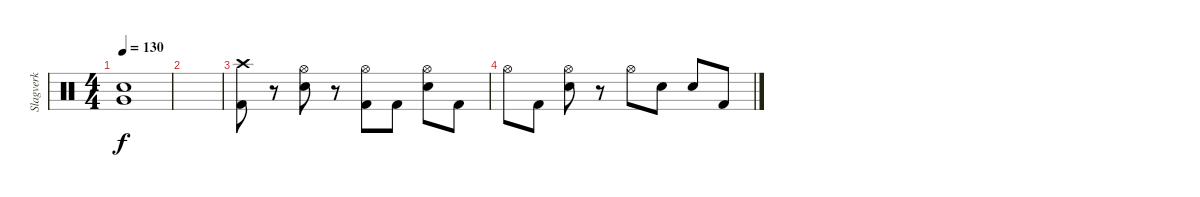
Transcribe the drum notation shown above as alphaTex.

\track ("Slagverk" "Slagverk") {instrument percussion}
\staff {score}
\articulation defaults
\ts (4 4)
\tempo 130
\clef neutral
\ks c
("Snare (hit) 2" "Very Low Tom (hit)").1{dy f} |
|
("Crash high (hit)" "Kick (hit) 2").8 r.8 ("Hi-Hat (open)" "Snare (hit) 2").8 r.8 ("Hi-Hat (open)" "Kick (hit) 2").8 "Kick (hit) 2".8 ("Hi-Hat (open)" "Snare (hit) 2").8 "Kick (hit) 2".8 |
"Hi-Hat (open)".8 "Kick (hit) 2".8 ("Hi-Hat (open)" "Snare (hit) 2").8 r.8 "Hi-Hat (open)".8 "Snare (hit) 2".8 "Snare (hit) 2".8 "Kick (hit) 2".8
